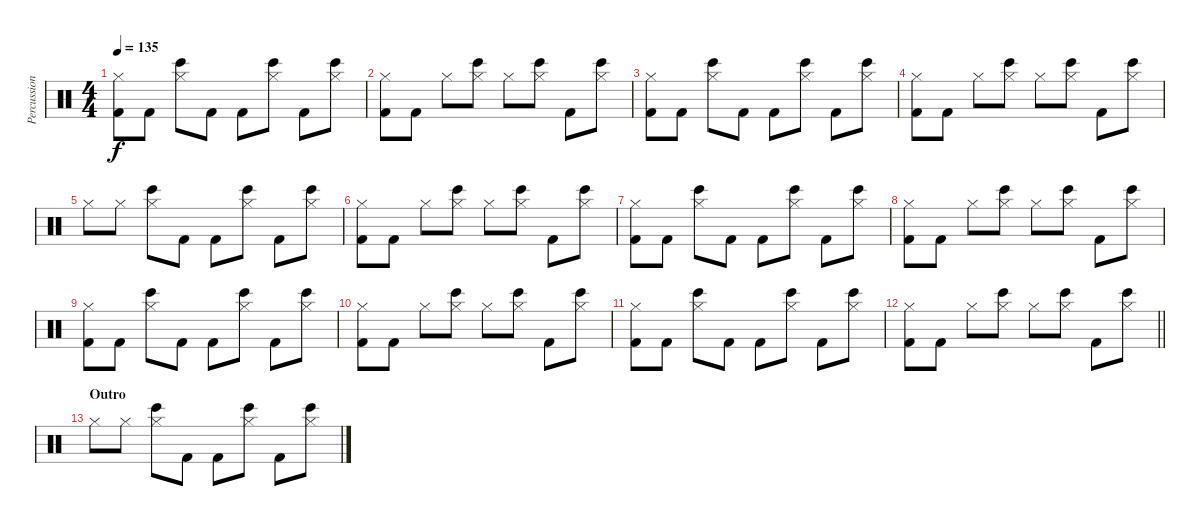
\track ("Percussion" "Percussion") {instrument percussion}
\staff {score}
\articulation defaults
\ts (4 4)
\tempo 135
\clef neutral
\ks c
("Hi-Hat (closed)" "Kick (hit) 2").8{dy f} "Kick (hit) 2".8 ("Hi-Hat (closed)" "Bongo High (hit)").8 "Kick (hit) 2".8 "Kick (hit) 2".8 ("Hi-Hat (closed)" "Bongo High (hit)").8 "Kick (hit) 2".8 ("Hi-Hat (closed)" "Bongo High (hit)").8 |
("Hi-Hat (closed)" "Kick (hit) 2").8 "Kick (hit) 2".8 "Hi-Hat (closed)".8 ("Hi-Hat (closed)" "Bongo High (hit)").8 "Hi-Hat (closed)".8 ("Hi-Hat (closed)" "Bongo High (hit)").8 "Kick (hit) 2".8 ("Hi-Hat (closed)" "Bongo High (hit)").8 |
("Hi-Hat (closed)" "Kick (hit) 2").8 "Kick (hit) 2".8 ("Hi-Hat (closed)" "Bongo High (hit)").8 "Kick (hit) 2".8 "Kick (hit) 2".8 ("Hi-Hat (closed)" "Bongo High (hit)").8 "Kick (hit) 2".8 ("Hi-Hat (closed)" "Bongo High (hit)").8 |
("Hi-Hat (closed)" "Kick (hit) 2").8 "Kick (hit) 2".8 "Hi-Hat (closed)".8 ("Hi-Hat (closed)" "Bongo High (hit)").8 "Hi-Hat (closed)".8 ("Hi-Hat (closed)" "Bongo High (hit)").8 "Kick (hit) 2".8 ("Hi-Hat (closed)" "Bongo High (hit)").8 |
"Hi-Hat (closed)".8 "Hi-Hat (closed)".8 ("Hi-Hat (closed)" "Bongo High (hit)").8 "Kick (hit) 2".8 "Kick (hit) 2".8 ("Hi-Hat (closed)" "Bongo High (hit)").8 "Kick (hit) 2".8 ("Hi-Hat (closed)" "Bongo High (hit)").8 |
("Hi-Hat (closed)" "Kick (hit) 2").8 "Kick (hit) 2".8 "Hi-Hat (closed)".8 ("Hi-Hat (closed)" "Bongo High (hit)").8 "Hi-Hat (closed)".8 ("Hi-Hat (closed)" "Bongo High (hit)").8 "Kick (hit) 2".8 ("Hi-Hat (closed)" "Bongo High (hit)").8 |
("Hi-Hat (closed)" "Kick (hit) 2").8 "Kick (hit) 2".8 ("Hi-Hat (closed)" "Bongo High (hit)").8 "Kick (hit) 2".8 "Kick (hit) 2".8 ("Hi-Hat (closed)" "Bongo High (hit)").8 "Kick (hit) 2".8 ("Hi-Hat (closed)" "Bongo High (hit)").8 |
("Hi-Hat (closed)" "Kick (hit) 2").8 "Kick (hit) 2".8 "Hi-Hat (closed)".8 ("Hi-Hat (closed)" "Bongo High (hit)").8 "Hi-Hat (closed)".8 ("Hi-Hat (closed)" "Bongo High (hit)").8 "Kick (hit) 2".8 ("Hi-Hat (closed)" "Bongo High (hit)").8 |
("Hi-Hat (closed)" "Kick (hit) 2").8 "Kick (hit) 2".8 ("Hi-Hat (closed)" "Bongo High (hit)").8 "Kick (hit) 2".8 "Kick (hit) 2".8 ("Hi-Hat (closed)" "Bongo High (hit)").8 "Kick (hit) 2".8 ("Hi-Hat (closed)" "Bongo High (hit)").8 |
("Hi-Hat (closed)" "Kick (hit) 2").8 "Kick (hit) 2".8 "Hi-Hat (closed)".8 ("Hi-Hat (closed)" "Bongo High (hit)").8 "Hi-Hat (closed)".8 ("Hi-Hat (closed)" "Bongo High (hit)").8 "Kick (hit) 2".8 ("Hi-Hat (closed)" "Bongo High (hit)").8 |
("Hi-Hat (closed)" "Kick (hit) 2").8 "Kick (hit) 2".8 ("Hi-Hat (closed)" "Bongo High (hit)").8 "Kick (hit) 2".8 "Kick (hit) 2".8 ("Hi-Hat (closed)" "Bongo High (hit)").8 "Kick (hit) 2".8 ("Hi-Hat (closed)" "Bongo High (hit)").8 |
\barLineRight lightlight
("Hi-Hat (closed)" "Kick (hit) 2").8 "Kick (hit) 2".8 "Hi-Hat (closed)".8 ("Hi-Hat (closed)" "Bongo High (hit)").8 "Hi-Hat (closed)".8 ("Hi-Hat (closed)" "Bongo High (hit)").8 "Kick (hit) 2".8 ("Hi-Hat (closed)" "Bongo High (hit)").8 |
\section ("" "Outro")
"Hi-Hat (closed)".8 "Hi-Hat (closed)".8 ("Hi-Hat (closed)" "Bongo High (hit)").8 "Kick (hit) 2".8 "Kick (hit) 2".8 ("Hi-Hat (closed)" "Bongo High (hit)").8 "Kick (hit) 2".8 ("Hi-Hat (closed)" "Bongo High (hit)").8
